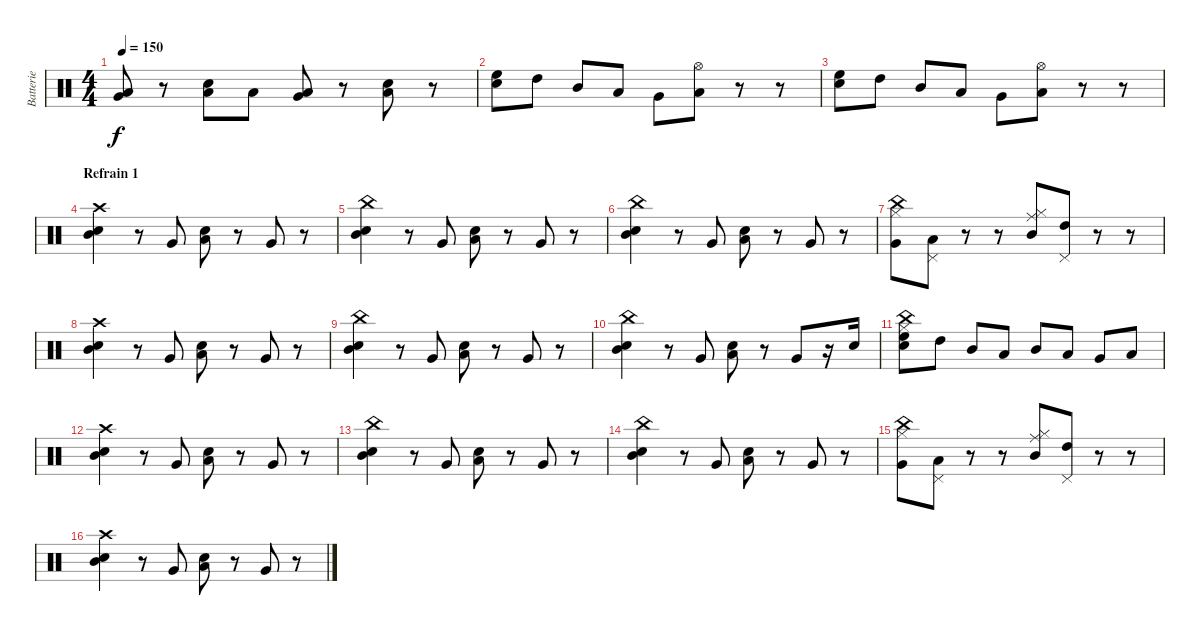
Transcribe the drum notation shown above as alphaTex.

\track ("Batterie" "Batterie") {instrument percussion}
\staff {score}
\articulation defaults
\ts (4 4)
\tempo 150
\clef neutral
\ks c
("Very Low Tom (hit)" "Low Floor Tom (hit)").8{dy f} r.8 ("Low Tom (hit)" "Electric Snare (hit)").8 "Low Floor Tom (hit)".8 ("Low Floor Tom (hit)" "Very Low Tom (hit)").8 r.8 ("Low Tom (hit)" "Electric Snare (hit)").8 r.8 |
("High Floor Tom (hit)" "Electric Snare (hit)").8 "High Tom (hit)".8 "Mid Tom (hit)".8 "Low Tom (hit)".8 "Very Low Tom (hit)".8 ("Low Floor Tom (hit)" "Hi-Hat (open)").8 r.8 r.8 |
("High Floor Tom (hit)" "Electric Snare (hit)").8 "High Tom (hit)".8 "Mid Tom (hit)".8 "Low Tom (hit)".8 "Very Low Tom (hit)".8 ("Low Floor Tom (hit)" "Hi-Hat (open)").8 r.8 r.8 |
\section ("" "Refrain 1")
("Mid Tom (hit)" "Electric Snare (hit)" "Crash high (hit)").4 r.8 "Very Low Tom (hit)".8 ("Low Tom (hit)" "Electric Snare (hit)").8 r.8 "Very Low Tom (hit)".8 r.8 |
("Mid Tom (hit)" "Electric Snare (hit)" "China (hit)").4 r.8 "Very Low Tom (hit)".8 ("Low Tom (hit)" "Electric Snare (hit)").8 r.8 "Very Low Tom (hit)".8 r.8 |
("Mid Tom (hit)" "Electric Snare (hit)" "China (hit)").4 r.8 "Very Low Tom (hit)".8 ("Low Tom (hit)" "Electric Snare (hit)").8 r.8 "Very Low Tom (hit)".8 r.8 |
("Hi-Hat (closed)" "Very Low Tom (hit)" "China (hit)").8 ("Pedal Hi-Hat (hit)" "Low Tom (hit)").8 r.8 r.8 ("Hi-Hat (closed)" "Mid Tom (hit)" "Ride (middle)").8 ("Pedal Hi-Hat (hit)" "High Tom (hit)").8 r.8 r.8 |
("Mid Tom (hit)" "Electric Snare (hit)" "Crash high (hit)").4 r.8 "Very Low Tom (hit)".8 ("Low Tom (hit)" "Electric Snare (hit)").8 r.8 "Very Low Tom (hit)".8 r.8 |
("Mid Tom (hit)" "Electric Snare (hit)" "China (hit)").4 r.8 "Very Low Tom (hit)".8 ("Low Tom (hit)" "Electric Snare (hit)").8 r.8 "Very Low Tom (hit)".8 r.8 |
("Mid Tom (hit)" "Electric Snare (hit)" "China (hit)").4 r.8 "Very Low Tom (hit)".8 ("Low Tom (hit)" "Electric Snare (hit)").8 r.8 "Very Low Tom (hit)".8 r.16 "Electric Snare (hit)".16 |
("Hi-Hat (closed)" "High Floor Tom (hit)" "China (hit)" "Snare (hit) 2").8 "High Tom (hit)".8 "Mid Tom (hit)".8 "Low Floor Tom (hit)".8 "Mid Tom (hit)".8 "Low Tom (hit)".8 "Very Low Tom (hit)".8 "Low Floor Tom (hit)".8 |
("Mid Tom (hit)" "Electric Snare (hit)" "Crash high (hit)").4 r.8 "Very Low Tom (hit)".8 ("Low Tom (hit)" "Electric Snare (hit)").8 r.8 "Very Low Tom (hit)".8 r.8 |
("Mid Tom (hit)" "Electric Snare (hit)" "China (hit)").4 r.8 "Very Low Tom (hit)".8 ("Low Tom (hit)" "Electric Snare (hit)").8 r.8 "Very Low Tom (hit)".8 r.8 |
("Mid Tom (hit)" "Electric Snare (hit)" "China (hit)").4 r.8 "Very Low Tom (hit)".8 ("Low Tom (hit)" "Electric Snare (hit)").8 r.8 "Very Low Tom (hit)".8 r.8 |
("Hi-Hat (closed)" "Very Low Tom (hit)" "China (hit)").8 ("Pedal Hi-Hat (hit)" "Low Tom (hit)").8 r.8 r.8 ("Hi-Hat (closed)" "Mid Tom (hit)" "Ride (middle)").8 ("Pedal Hi-Hat (hit)" "High Tom (hit)").8 r.8 r.8 |
("Mid Tom (hit)" "Electric Snare (hit)" "Crash high (hit)").4 r.8 "Very Low Tom (hit)".8 ("Low Tom (hit)" "Electric Snare (hit)").8 r.8 "Very Low Tom (hit)".8 r.8
